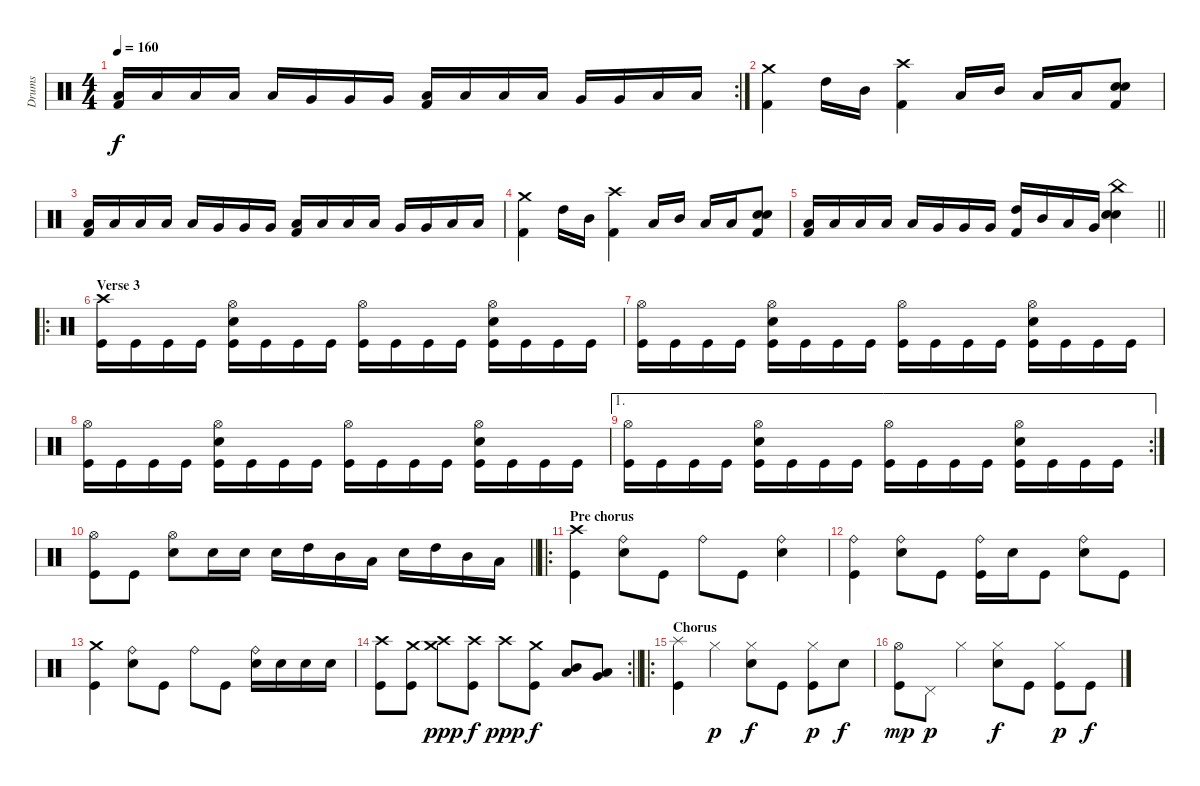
\track ("Drums" "Drums") {instrument percussion}
\staff {score}
\articulation defaults
\rc 2
\ts (4 4)
\tempo 160
\clef neutral
\ks c
("Low Tom (hit)" "Kick (hit) 2").16{dy f} "Low Tom (hit)".16 "Low Tom (hit)".16 "Low Tom (hit)".16 "Low Tom (hit)".16 "Very Low Tom (hit)".16 "Very Low Tom (hit)".16 "Very Low Tom (hit)".16 ("Low Tom (hit)" "Kick (hit) 2").16 "Low Tom (hit)".16 "Low Tom (hit)".16 "Low Tom (hit)".16 "Very Low Tom (hit)".16 "Very Low Tom (hit)".16 "Low Floor Tom (hit)".16 "Low Floor Tom (hit)".16 |
("Crash medium (hit)" "Kick (hit) 2").4 "High Tom (hit)".16 "Mid Tom (hit)".16 ("Crash high (hit)" "Kick (hit) 2").4 "Low Tom (hit)".16 "Mid Tom (hit)".16 "Low Tom (hit)".16 "Low Tom (hit)".16 ("Electric Snare (hit)" "Electric Snare (hit)" "Kick (hit) 2").8{bd 120} |
("Low Tom (hit)" "Kick (hit) 2").16 "Low Tom (hit)".16 "Low Tom (hit)".16 "Low Tom (hit)".16 "Low Tom (hit)".16 "Very Low Tom (hit)".16 "Very Low Tom (hit)".16 "Very Low Tom (hit)".16 ("Low Tom (hit)" "Kick (hit) 2").16 "Low Tom (hit)".16 "Low Tom (hit)".16 "Low Tom (hit)".16 "Very Low Tom (hit)".16 "Very Low Tom (hit)".16 "Low Floor Tom (hit)".16 "Low Floor Tom (hit)".16 |
("Crash medium (hit)" "Kick (hit) 2").4 "High Tom (hit)".16 "Mid Tom (hit)".16 ("Crash high (hit)" "Kick (hit) 2").4 "Low Tom (hit)".16 "Mid Tom (hit)".16 "Low Tom (hit)".16 "Low Tom (hit)".16 ("Electric Snare (hit)" "Electric Snare (hit)" "Kick (hit) 2").8{bd 120} |
\barLineRight lightlight
("Low Tom (hit)" "Kick (hit) 2").16 "Low Tom (hit)".16 "Low Tom (hit)".16 "Low Tom (hit)".16 "Low Tom (hit)".16 "Very Low Tom (hit)".16 "Very Low Tom (hit)".16 "Very Low Tom (hit)".16 ("High Tom (hit)" "Kick (hit) 2").16 "Mid Tom (hit)".16 "Low Tom (hit)".16 "Very Low Tom (hit)".16 ("China (hit)" "Electric Snare (hit)" "Electric Snare (hit)").4 |
\ro
\section ("" "Verse 3")
("Crash high (hit)" "Kick (hit)").16 "Kick (hit)".16 "Kick (hit)".16 "Kick (hit)".16 ("Hi-Hat (open)" "Electric Snare (hit)" "Kick (hit)").16 "Kick (hit)".16 "Kick (hit)".16 "Kick (hit)".16 ("Hi-Hat (open)" "Kick (hit)").16 "Kick (hit)".16 "Kick (hit)".16 "Kick (hit)".16 ("Hi-Hat (open)" "Electric Snare (hit)" "Kick (hit)").16 "Kick (hit)".16 "Kick (hit)".16 "Kick (hit)".16 |
("Hi-Hat (open)" "Kick (hit)").16 "Kick (hit)".16 "Kick (hit)".16 "Kick (hit)".16 ("Hi-Hat (open)" "Electric Snare (hit)" "Kick (hit)").16 "Kick (hit)".16 "Kick (hit)".16 "Kick (hit)".16 ("Hi-Hat (open)" "Kick (hit)").16 "Kick (hit)".16 "Kick (hit)".16 "Kick (hit)".16 ("Hi-Hat (open)" "Electric Snare (hit)" "Kick (hit)").16 "Kick (hit)".16 "Kick (hit)".16 "Kick (hit)".16 |
("Hi-Hat (open)" "Kick (hit)").16 "Kick (hit)".16 "Kick (hit)".16 "Kick (hit)".16 ("Hi-Hat (open)" "Electric Snare (hit)" "Kick (hit)").16 "Kick (hit)".16 "Kick (hit)".16 "Kick (hit)".16 ("Hi-Hat (open)" "Kick (hit)").16 "Kick (hit)".16 "Kick (hit)".16 "Kick (hit)".16 ("Hi-Hat (open)" "Electric Snare (hit)" "Kick (hit)").16 "Kick (hit)".16 "Kick (hit)".16 "Kick (hit)".16 |
\ae 1
\rc 2
("Hi-Hat (open)" "Kick (hit)").16 "Kick (hit)".16 "Kick (hit)".16 "Kick (hit)".16 ("Hi-Hat (open)" "Electric Snare (hit)" "Kick (hit)").16 "Kick (hit)".16 "Kick (hit)".16 "Kick (hit)".16 ("Hi-Hat (open)" "Kick (hit)").16 "Kick (hit)".16 "Kick (hit)".16 "Kick (hit)".16 ("Hi-Hat (open)" "Electric Snare (hit)" "Kick (hit)").16 "Kick (hit)".16 "Kick (hit)".16 "Kick (hit)".16 |
\barLineRight lightlight
("Hi-Hat (open)" "Kick (hit)").8 "Kick (hit)".8 ("Hi-Hat (open)" "Electric Snare (hit)").8 "Electric Snare (hit)".16 "Electric Snare (hit)".16 "Electric Snare (hit)".16 "High Tom (hit)".16 "Mid Tom (hit)".16 "Low Tom (hit)".16 "Electric Snare (hit)".16 "High Tom (hit)".16 "Mid Tom (hit)".16 "Low Tom (hit)".16 |
\ro
\section ("" "Pre chorus")
("Crash high (hit)" "Kick (hit)").4 ("Ride (bell)" "Electric Snare (hit)").8 "Kick (hit)".8 "Ride (bell)".8 "Kick (hit)".8 ("Ride (bell)" "Electric Snare (hit)").4 |
("Ride (bell)" "Kick (hit)").4 ("Ride (bell)" "Electric Snare (hit)").8 "Kick (hit)".8 ("Ride (bell)" "Kick (hit)").16 "Electric Snare (hit)".16 "Kick (hit)".8 ("Ride (bell)" "Electric Snare (hit)").8 "Kick (hit)".8 |
("Crash medium (hit)" "Kick (hit)").4 ("Ride (bell)" "Electric Snare (hit)").8 "Kick (hit)".8 "Ride (bell)".8 "Kick (hit)".8 ("Ride (bell)" "Electric Snare (hit)").16 "Electric Snare (hit)".16 "Electric Snare (hit)".16 "Electric Snare (hit)".16 |
\rc 2
\barLineRight lightlight
("Crash high (hit)" "Kick (hit)").8 ("Crash medium (hit)" "Kick (hit)").8 ("Crash medium (hit)" "Crash high (hit)").8{dy ppp} ("Crash high (hit)" "Kick (hit)").8{dy f} "Crash high (hit)".8{dy ppp} ("Crash medium (hit)" "Kick (hit)").8{dy f} ("Mid Tom (hit)" "Low Tom (hit)").8 ("Low Tom (hit)" "Very Low Tom (hit)").8 |
\ro
\section ("" "Chorus")
("Splash (hit)" "Kick (hit)").4 "Hi-Hat (closed)".4{dy p} ("Hi-Hat (closed)" "Electric Snare (hit)").8{dy f} "Kick (hit)".8 ("Hi-Hat (closed)" "Kick (hit)").8{dy p} "Electric Snare (hit)".8{dy f} |
("Hi-Hat (open)" "Kick (hit)").8{dy mp} "Pedal Hi-Hat (hit)".8{dy p} "Hi-Hat (closed)".4 ("Hi-Hat (closed)" "Electric Snare (hit)").8{dy f} "Kick (hit)".8 ("Hi-Hat (closed)" "Kick (hit)").8{dy p} "Kick (hit)".8{dy f}
